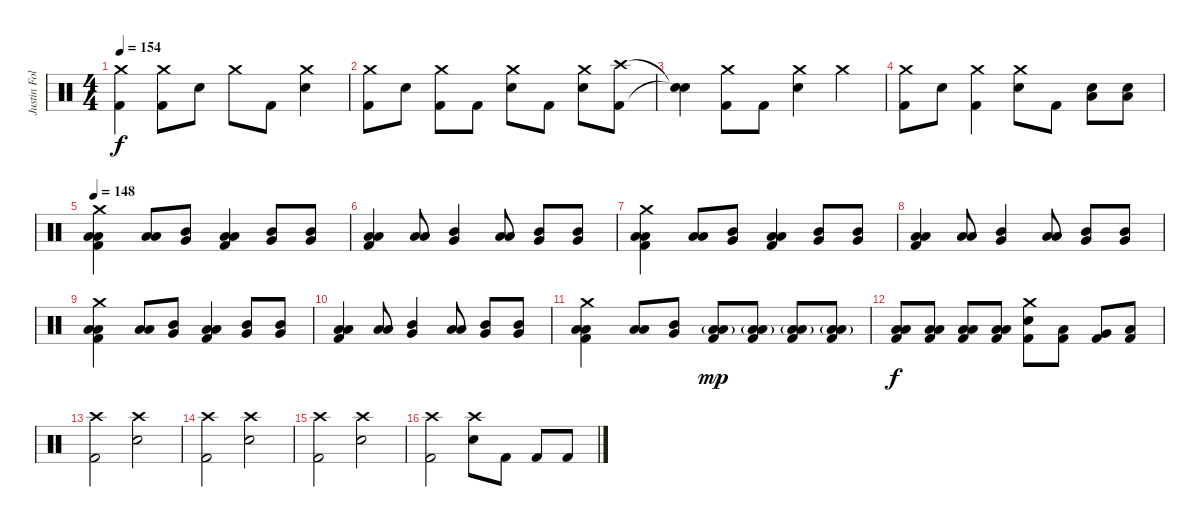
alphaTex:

\track ("Justin Foley" "Justin Fol") {instrument percussion}
\staff {score}
\articulation defaults
\ts (4 4)
\tempo 154
\clef neutral
\ks c
("Crash medium (hit)" "Kick (hit) 2").4{dy f} ("Crash medium (hit)" "Kick (hit) 2").8 "Electric Snare (hit)".8 "Crash medium (hit)".8 "Kick (hit) 2".8 ("Crash medium (hit)" "Electric Snare (hit)").4 |
("Crash medium (hit)" "Kick (hit) 2").8 "Electric Snare (hit)".8 ("Crash medium (hit)" "Kick (hit) 2").8 "Kick (hit) 2".8 ("Crash medium (hit)" "Electric Snare (hit)").8 "Kick (hit) 2".8 ("Crash medium (hit)" "Electric Snare (hit)").8 ("Crash high (hit)" "Kick (hit) 2").8 |
("Snare (hit)"{t} "Snare (hit)"{t}).4 ("Crash medium (hit)" "Kick (hit) 2").8 "Kick (hit) 2".8 ("Crash medium (hit)" "Electric Snare (hit)").4 "Crash medium (hit)".4 |
("Crash medium (hit)" "Kick (hit) 2").8 "Electric Snare (hit)".8 ("Crash medium (hit)" "Kick (hit) 2").4 ("Crash medium (hit)" "Electric Snare (hit)").8 "Kick (hit) 2".8 ("Electric Snare (hit)" "Low Floor Tom (hit)").8 ("Electric Snare (hit)" "Low Floor Tom (hit)").8 |
\tempo 148
("Crash medium (hit)" "Low Tom (hit)" "Low Floor Tom (hit)" "Kick (hit) 2").4 ("Low Tom (hit)" "Low Floor Tom (hit)").8 ("Mid Tom (hit)" "Very Low Tom (hit)").8 ("Low Tom (hit)" "Low Floor Tom (hit)" "Kick (hit) 2").4 ("Mid Tom (hit)" "Very Low Tom (hit)").8 ("Mid Tom (hit)" "Very Low Tom (hit)").8 |
("Low Tom (hit)" "Low Floor Tom (hit)" "Kick (hit) 2").4 ("Low Tom (hit)" "Low Floor Tom (hit)").8 ("Mid Tom (hit)" "Very Low Tom (hit)").4 ("Low Tom (hit)" "Low Floor Tom (hit)").8 ("Mid Tom (hit)" "Very Low Tom (hit)").8 ("Mid Tom (hit)" "Very Low Tom (hit)").8 |
("Crash medium (hit)" "Low Tom (hit)" "Low Floor Tom (hit)" "Kick (hit) 2").4 ("Low Tom (hit)" "Low Floor Tom (hit)").8 ("Mid Tom (hit)" "Very Low Tom (hit)").8 ("Low Tom (hit)" "Low Floor Tom (hit)" "Kick (hit) 2").4 ("Mid Tom (hit)" "Very Low Tom (hit)").8 ("Mid Tom (hit)" "Very Low Tom (hit)").8 |
("Low Tom (hit)" "Low Floor Tom (hit)" "Kick (hit) 2").4 ("Low Tom (hit)" "Low Floor Tom (hit)").8 ("Mid Tom (hit)" "Very Low Tom (hit)").4 ("Low Tom (hit)" "Low Floor Tom (hit)").8 ("Mid Tom (hit)" "Very Low Tom (hit)").8 ("Mid Tom (hit)" "Very Low Tom (hit)").8 |
("Crash medium (hit)" "Low Tom (hit)" "Low Floor Tom (hit)" "Kick (hit) 2").4 ("Low Tom (hit)" "Low Floor Tom (hit)").8 ("Mid Tom (hit)" "Very Low Tom (hit)").8 ("Low Tom (hit)" "Low Floor Tom (hit)" "Kick (hit) 2").4 ("Mid Tom (hit)" "Very Low Tom (hit)").8 ("Mid Tom (hit)" "Very Low Tom (hit)").8 |
("Low Tom (hit)" "Low Floor Tom (hit)" "Kick (hit) 2").4 ("Low Tom (hit)" "Low Floor Tom (hit)").8 ("Mid Tom (hit)" "Very Low Tom (hit)").4 ("Low Tom (hit)" "Low Floor Tom (hit)").8 ("Mid Tom (hit)" "Very Low Tom (hit)").8 ("Mid Tom (hit)" "Very Low Tom (hit)").8 |
("Crash medium (hit)" "Low Tom (hit)" "Low Floor Tom (hit)" "Kick (hit) 2").4 ("Low Tom (hit)" "Low Floor Tom (hit)").8 ("Mid Tom (hit)" "Very Low Tom (hit)").8 ("Low Tom (hit)"{g} "Low Floor Tom (hit)"{g} "Kick (hit) 2").8{dy mp} ("Low Tom (hit)"{g} "Low Floor Tom (hit)"{g} "Kick (hit) 2").8 ("Low Tom (hit)"{g} "Low Floor Tom (hit)"{g} "Kick (hit) 2").8 ("Low Tom (hit)"{g} "Low Floor Tom (hit)"{g} "Kick (hit) 2").8 |
("Low Tom (hit)" "Low Floor Tom (hit)" "Kick (hit) 2").8{dy f} ("Low Tom (hit)" "Low Floor Tom (hit)" "Kick (hit) 2").8 ("Low Tom (hit)" "Low Floor Tom (hit)" "Kick (hit) 2").8 ("Low Tom (hit)" "Low Floor Tom (hit)" "Kick (hit) 2").8 ("Crash medium (hit)" "Electric Snare (hit)" "Kick (hit) 2").8 ("Low Tom (hit)" "Kick (hit) 2").8 ("Very Low Tom (hit)" "Kick (hit) 2").8 ("Low Floor Tom (hit)" "Kick (hit) 2").8 |
("Crash high (hit)" "Kick (hit) 2").2 ("Crash high (hit)" "Electric Snare (hit)").2 |
("Crash high (hit)" "Kick (hit) 2").2 ("Crash high (hit)" "Electric Snare (hit)").2 |
("Crash high (hit)" "Kick (hit) 2").2 ("Crash high (hit)" "Electric Snare (hit)").2 |
("Crash high (hit)" "Kick (hit) 2").2 ("Crash high (hit)" "Electric Snare (hit)").8 "Kick (hit) 2".8 "Kick (hit) 2".8 "Kick (hit) 2".8
